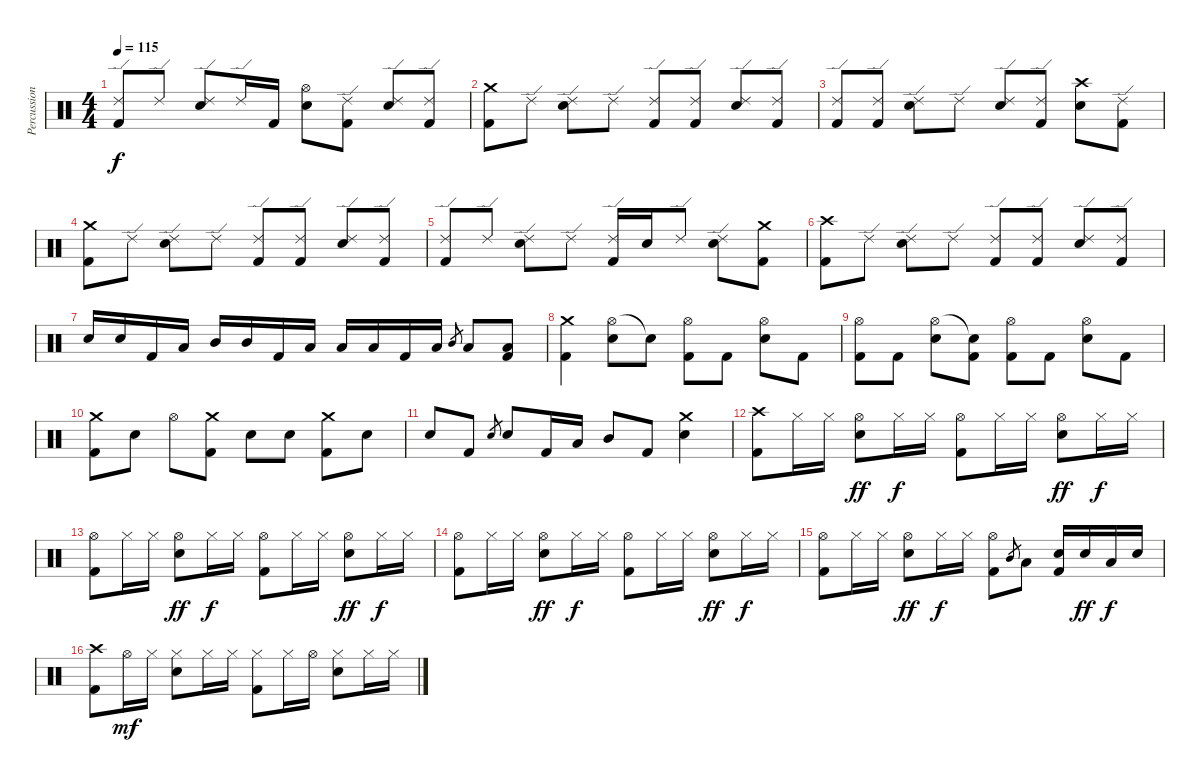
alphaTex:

\track ("Percussion" "Percussion") {instrument percussion}
\staff {score}
\articulation defaults
\ts (4 4)
\tempo 115
\clef neutral
\ks c
("Ride (edge) 2" "Kick (hit) 2").8{dy f} "Ride (edge) 2".8 ("Ride (edge) 2" "Electric Snare (hit)").8 "Ride (edge) 2".16 "Kick (hit) 2".16 ("Hi-Hat (open)" "Electric Snare (hit)").8 ("Ride (edge) 2" "Kick (hit) 2").8 ("Ride (edge) 2" "Electric Snare (hit)").8 ("Ride (edge) 2" "Kick (hit) 2").8 |
("Crash medium (hit)" "Kick (hit) 2").8 "Ride (edge) 2".8 ("Ride (edge) 2" "Electric Snare (hit)").8 "Ride (edge) 2".8 ("Ride (edge) 2" "Kick (hit) 2").8 ("Ride (edge) 2" "Kick (hit) 2").8 ("Ride (edge) 2" "Electric Snare (hit)").8 ("Ride (edge) 2" "Kick (hit) 2").8 |
("Ride (edge) 2" "Kick (hit) 2").8 ("Ride (edge) 2" "Kick (hit) 2").8 ("Ride (edge) 2" "Electric Snare (hit)").8 "Ride (edge) 2".8 ("Ride (edge) 2" "Electric Snare (hit)").8 ("Ride (edge) 2" "Kick (hit) 2").8 ("Crash high (hit)" "Electric Snare (hit)").8 ("Ride (edge) 2" "Kick (hit) 2").8 |
("Crash medium (hit)" "Kick (hit) 2").8 "Ride (edge) 2".8 ("Ride (edge) 2" "Electric Snare (hit)").8 "Ride (edge) 2".8 ("Ride (edge) 2" "Kick (hit) 2").8 ("Ride (edge) 2" "Kick (hit) 2").8 ("Ride (edge) 2" "Electric Snare (hit)").8 ("Ride (edge) 2" "Kick (hit) 2").8 |
("Ride (edge) 2" "Kick (hit) 2").8 "Ride (edge) 2".8 ("Ride (edge) 2" "Electric Snare (hit)").8 "Ride (edge) 2".8 ("Ride (edge) 2" "Kick (hit) 2").16 "Electric Snare (hit)".16 "Ride (edge) 2".8 ("Ride (edge) 2" "Electric Snare (hit)").8 ("Crash medium (hit)" "Kick (hit) 2").8 |
("Crash high (hit)" "Kick (hit) 2").8 "Ride (edge) 2".8 ("Ride (edge) 2" "Electric Snare (hit)").8 "Ride (edge) 2".8 ("Ride (edge) 2" "Kick (hit) 2").8 ("Ride (edge) 2" "Kick (hit) 2").8 ("Ride (edge) 2" "Electric Snare (hit)").8 ("Ride (edge) 2" "Kick (hit) 2").8 |
"Electric Snare (hit)".16 "Electric Snare (hit)".16 "Kick (hit) 2".16 "Low Floor Tom (hit)".16 "Mid Tom (hit)".16 "Mid Tom (hit)".16 "Kick (hit) 2".16 "Low Floor Tom (hit)".16 "Low Tom (hit)".16 "Low Tom (hit)".16 "Kick (hit) 2".16 "Low Floor Tom (hit)".16 "Mid Tom (hit)".8{gr} "Low Floor Tom (hit)".8 ("Low Floor Tom (hit)" "Kick (hit) 2").8 |
("Crash medium (hit)" "Kick (hit) 2").4 ("Hi-Hat (open)" "Electric Snare (hit)").8 "Snare (hit)"{t}.8 ("Hi-Hat (open)" "Kick (hit) 2").8 "Kick (hit) 2".8 ("Hi-Hat (open)" "Electric Snare (hit)").8 "Kick (hit) 2".8 |
("Hi-Hat (open)" "Kick (hit) 2").8 "Kick (hit) 2".8 ("Hi-Hat (open)" "Electric Snare (hit)").8 ("Snare (hit)"{t} "Kick (hit) 2").8 ("Hi-Hat (open)" "Kick (hit) 2").8 "Kick (hit) 2".8 ("Hi-Hat (open)" "Electric Snare (hit)").8 "Kick (hit) 2".8 |
("Crash medium (hit)" "Kick (hit) 2").8 "Electric Snare (hit)".8 "Hi-Hat (open)".8 ("Crash medium (hit)" "Kick (hit) 2").8 "Electric Snare (hit)".8 "Electric Snare (hit)".8 ("Crash medium (hit)" "Kick (hit) 2").8 "Electric Snare (hit)".8 |
"Electric Snare (hit)".8 "Kick (hit) 2".8 "Electric Snare (hit)".8{gr} "Electric Snare (hit)".8 "Kick (hit) 2".16 "Low Tom (hit)".16 "Mid Tom (hit)".8 "Kick (hit) 2".8 ("Crash medium (hit)" "Electric Snare (hit)").4 |
("Crash high (hit)" "Kick (hit) 2").8 "Hi-Hat (closed)".16 "Hi-Hat (closed)".16 ("Hi-Hat (open)" "Electric Snare (hit)").8{dy ff} "Hi-Hat (closed)".16{dy f} "Hi-Hat (closed)".16 ("Hi-Hat (open)" "Kick (hit) 2").8 "Hi-Hat (closed)".16 "Hi-Hat (closed)".16 ("Hi-Hat (open)" "Electric Snare (hit)").8{dy ff} "Hi-Hat (closed)".16{dy f} "Hi-Hat (closed)".16 |
("Hi-Hat (open)" "Kick (hit) 2").8 "Hi-Hat (closed)".16 "Hi-Hat (closed)".16 ("Hi-Hat (open)" "Electric Snare (hit)").8{dy ff} "Hi-Hat (closed)".16{dy f} "Hi-Hat (closed)".16 ("Hi-Hat (open)" "Kick (hit) 2").8 "Hi-Hat (closed)".16 "Hi-Hat (closed)".16 ("Hi-Hat (open)" "Electric Snare (hit)").8{dy ff} "Hi-Hat (closed)".16{dy f} "Hi-Hat (closed)".16 |
("Hi-Hat (open)" "Kick (hit) 2").8 "Hi-Hat (closed)".16 "Hi-Hat (closed)".16 ("Hi-Hat (open)" "Electric Snare (hit)").8{dy ff} "Hi-Hat (closed)".16{dy f} "Hi-Hat (closed)".16 ("Hi-Hat (open)" "Kick (hit) 2").8 "Hi-Hat (closed)".16 "Hi-Hat (closed)".16 ("Hi-Hat (open)" "Electric Snare (hit)").8{dy ff} "Hi-Hat (closed)".16{dy f} "Hi-Hat (closed)".16 |
("Hi-Hat (open)" "Kick (hit) 2").8 "Hi-Hat (closed)".16 "Hi-Hat (closed)".16 ("Hi-Hat (open)" "Electric Snare (hit)").8{dy ff} "Hi-Hat (closed)".16{dy f} "Hi-Hat (closed)".16 ("Hi-Hat (open)" "Kick (hit) 2").8 "Mid Tom (hit)".8{gr} "Low Floor Tom (hit)".8 ("Electric Snare (hit)" "Kick (hit) 2").16 "Electric Snare (hit)".16{dy ff} "Low Floor Tom (hit)".16{dy f} "Electric Snare (hit)".16 |
("Crash high (hit)" "Kick (hit) 2").8 "Hi-Hat (open)".16{dy mf} "Hi-Hat (closed)".16 ("Hi-Hat (closed)" "Electric Snare (hit)").8 "Hi-Hat (closed)".16 "Hi-Hat (closed)".16 ("Hi-Hat (closed)" "Kick (hit) 2").8 "Hi-Hat (closed)".16 "Hi-Hat (open)".16 ("Hi-Hat (closed)" "Electric Snare (hit)").8 "Hi-Hat (closed)".16 "Hi-Hat (closed)".16
